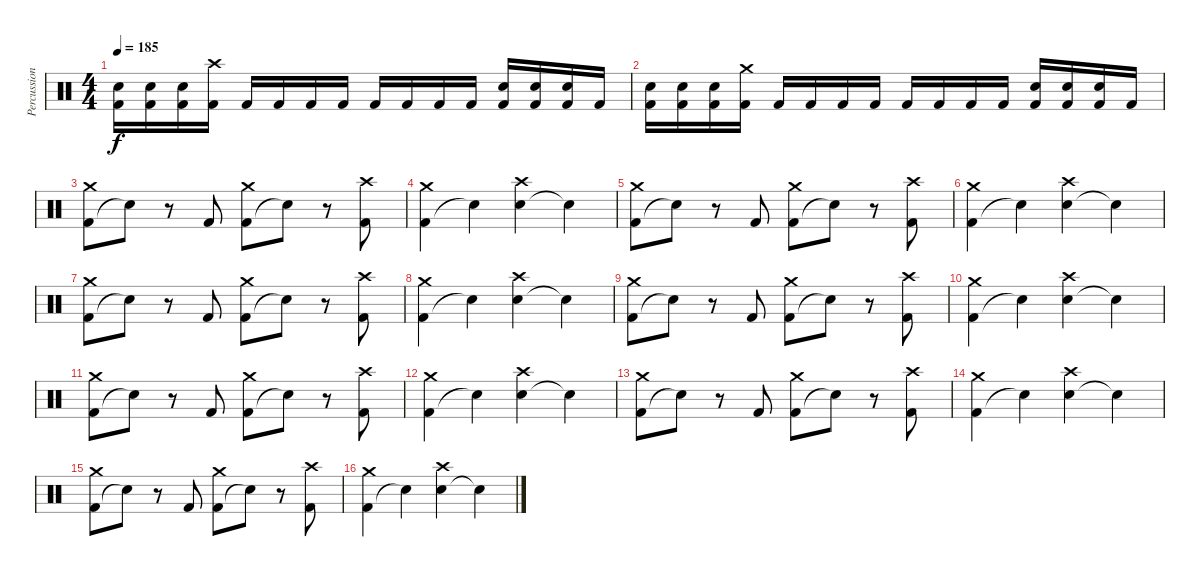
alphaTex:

\track ("Percussion" "Percussion") {instrument percussion}
\staff {score}
\articulation defaults
\ts (4 4)
\tempo 185
\clef neutral
\ks c
("Kick (hit) 2" "Electric Snare (hit)").16{dy f} ("Kick (hit) 2" "Electric Snare (hit)").16 ("Kick (hit) 2" "Electric Snare (hit)").16 ("Kick (hit) 2" "Crash high (hit)").16 "Kick (hit) 2".16 "Kick (hit) 2".16 "Kick (hit) 2".16 "Kick (hit) 2".16 "Kick (hit) 2".16 "Kick (hit) 2".16 "Kick (hit) 2".16 "Kick (hit) 2".16 ("Kick (hit) 2" "Electric Snare (hit)").16 ("Kick (hit) 2" "Electric Snare (hit)").16 ("Kick (hit) 2" "Electric Snare (hit)").16 "Kick (hit) 2".16 |
("Kick (hit) 2" "Electric Snare (hit)").16 ("Kick (hit) 2" "Electric Snare (hit)").16 ("Kick (hit) 2" "Electric Snare (hit)").16 ("Kick (hit) 2" "Crash medium (hit)").16 "Kick (hit) 2".16 "Kick (hit) 2".16 "Kick (hit) 2".16 "Kick (hit) 2".16 "Kick (hit) 2".16 "Kick (hit) 2".16 "Kick (hit) 2".16 "Kick (hit) 2".16 ("Kick (hit) 2" "Electric Snare (hit)").16 ("Kick (hit) 2" "Electric Snare (hit)").16 ("Kick (hit) 2" "Electric Snare (hit)").16 "Kick (hit) 2".16 |
("Kick (hit) 2" "Crash medium (hit)").8 "Snare (hit)"{t}.8 r.8 "Kick (hit) 2".8 ("Kick (hit) 2" "Crash medium (hit)").8 "Snare (hit)"{t}.8 r.8 ("Kick (hit) 2" "Crash high (hit)").8 |
("Kick (hit) 2" "Crash medium (hit)").4 "Snare (hit)"{t}.4 ("Electric Snare (hit)" "Crash high (hit)").4 "Snare (hit)"{t}.4 |
("Kick (hit) 2" "Crash medium (hit)").8 "Snare (hit)"{t}.8 r.8 "Kick (hit) 2".8 ("Kick (hit) 2" "Crash medium (hit)").8 "Snare (hit)"{t}.8 r.8 ("Kick (hit) 2" "Crash high (hit)").8 |
("Kick (hit) 2" "Crash medium (hit)").4 "Snare (hit)"{t}.4 ("Electric Snare (hit)" "Crash high (hit)").4 "Snare (hit)"{t}.4 |
("Kick (hit) 2" "Crash medium (hit)").8 "Snare (hit)"{t}.8 r.8 "Kick (hit) 2".8 ("Kick (hit) 2" "Crash medium (hit)").8 "Snare (hit)"{t}.8 r.8 ("Kick (hit) 2" "Crash high (hit)").8 |
("Kick (hit) 2" "Crash medium (hit)").4 "Snare (hit)"{t}.4 ("Electric Snare (hit)" "Crash high (hit)").4 "Snare (hit)"{t}.4 |
("Kick (hit) 2" "Crash medium (hit)").8 "Snare (hit)"{t}.8 r.8 "Kick (hit) 2".8 ("Kick (hit) 2" "Crash medium (hit)").8 "Snare (hit)"{t}.8 r.8 ("Kick (hit) 2" "Crash high (hit)").8 |
("Kick (hit) 2" "Crash medium (hit)").4 "Snare (hit)"{t}.4 ("Electric Snare (hit)" "Crash high (hit)").4 "Snare (hit)"{t}.4 |
("Kick (hit) 2" "Crash medium (hit)").8 "Snare (hit)"{t}.8 r.8 "Kick (hit) 2".8 ("Kick (hit) 2" "Crash medium (hit)").8 "Snare (hit)"{t}.8 r.8 ("Kick (hit) 2" "Crash high (hit)").8 |
("Kick (hit) 2" "Crash medium (hit)").4 "Snare (hit)"{t}.4 ("Electric Snare (hit)" "Crash high (hit)").4 "Snare (hit)"{t}.4 |
("Kick (hit) 2" "Crash medium (hit)").8 "Snare (hit)"{t}.8 r.8 "Kick (hit) 2".8 ("Kick (hit) 2" "Crash medium (hit)").8 "Snare (hit)"{t}.8 r.8 ("Kick (hit) 2" "Crash high (hit)").8 |
("Kick (hit) 2" "Crash medium (hit)").4 "Snare (hit)"{t}.4 ("Electric Snare (hit)" "Crash high (hit)").4 "Snare (hit)"{t}.4 |
("Kick (hit) 2" "Crash medium (hit)").8 "Snare (hit)"{t}.8 r.8 "Kick (hit) 2".8 ("Kick (hit) 2" "Crash medium (hit)").8 "Snare (hit)"{t}.8 r.8 ("Kick (hit) 2" "Crash high (hit)").8 |
("Kick (hit) 2" "Crash medium (hit)").4 "Snare (hit)"{t}.4 ("Electric Snare (hit)" "Crash high (hit)").4 "Snare (hit)"{t}.4
